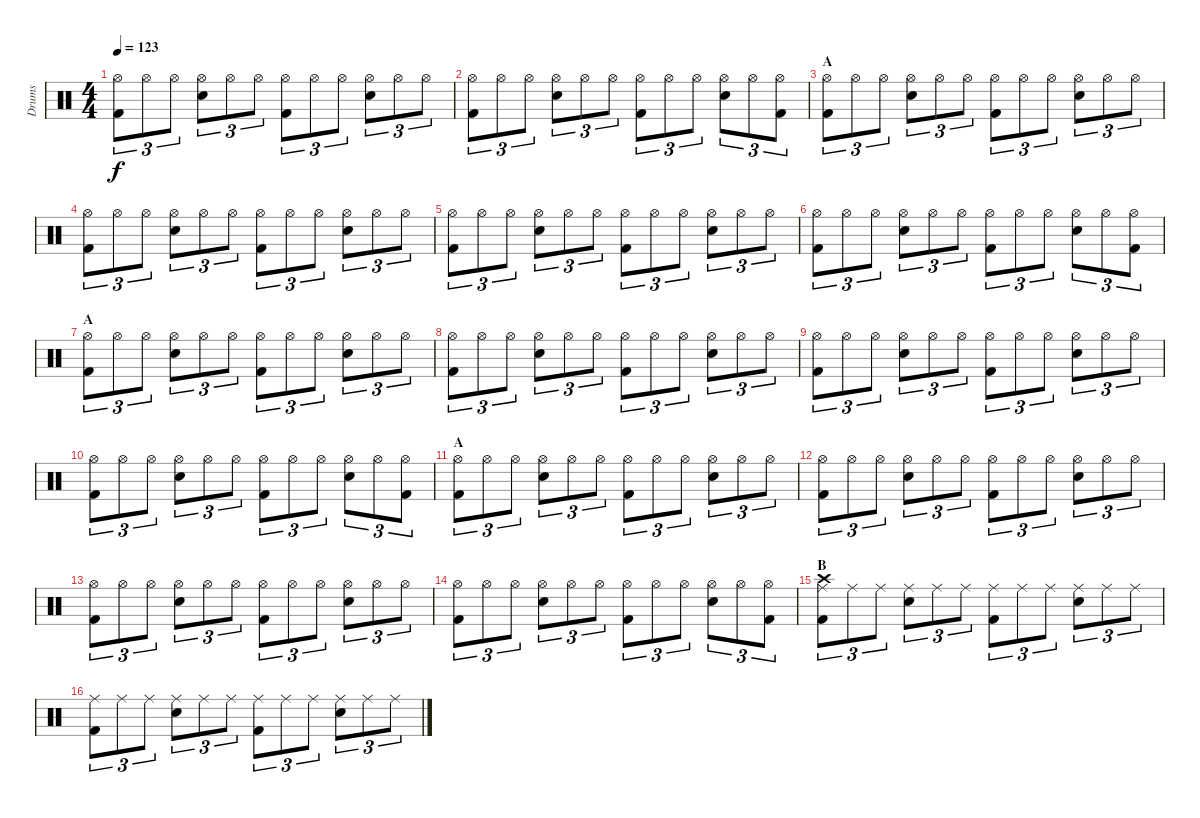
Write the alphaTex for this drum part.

\track ("Drums" "Drums") {instrument percussion}
\staff {score}
\articulation defaults
\ts (4 4)
\tempo 123
\clef neutral
\ks c
("Hi-Hat (open)" "Kick (hit) 2").8{tu (3 2) dy f} "Hi-Hat (open)".8{tu (3 2)} "Hi-Hat (open)".8{tu (3 2)} ("Hi-Hat (open)" "Snare (hit) 2").8{tu (3 2)} "Hi-Hat (open)".8{tu (3 2)} "Hi-Hat (open)".8{tu (3 2)} ("Hi-Hat (open)" "Kick (hit) 2").8{tu (3 2)} "Hi-Hat (open)".8{tu (3 2)} "Hi-Hat (open)".8{tu (3 2)} ("Hi-Hat (open)" "Snare (hit) 2").8{tu (3 2)} "Hi-Hat (open)".8{tu (3 2)} "Hi-Hat (open)".8{tu (3 2)} |
("Hi-Hat (open)" "Kick (hit) 2").8{tu (3 2)} "Hi-Hat (open)".8{tu (3 2)} "Hi-Hat (open)".8{tu (3 2)} ("Hi-Hat (open)" "Snare (hit) 2").8{tu (3 2)} "Hi-Hat (open)".8{tu (3 2)} "Hi-Hat (open)".8{tu (3 2)} ("Hi-Hat (open)" "Kick (hit) 2").8{tu (3 2)} "Hi-Hat (open)".8{tu (3 2)} "Hi-Hat (open)".8{tu (3 2)} ("Hi-Hat (open)" "Snare (hit) 2").8{tu (3 2)} "Hi-Hat (open)".8{tu (3 2)} ("Hi-Hat (open)" "Kick (hit) 2").8{tu (3 2)} |
\section ("" "A")
("Hi-Hat (open)" "Kick (hit) 2").8{tu (3 2)} "Hi-Hat (open)".8{tu (3 2)} "Hi-Hat (open)".8{tu (3 2)} ("Hi-Hat (open)" "Snare (hit) 2").8{tu (3 2)} "Hi-Hat (open)".8{tu (3 2)} "Hi-Hat (open)".8{tu (3 2)} ("Hi-Hat (open)" "Kick (hit) 2").8{tu (3 2)} "Hi-Hat (open)".8{tu (3 2)} "Hi-Hat (open)".8{tu (3 2)} ("Hi-Hat (open)" "Snare (hit) 2").8{tu (3 2)} "Hi-Hat (open)".8{tu (3 2)} "Hi-Hat (open)".8{tu (3 2)} |
("Hi-Hat (open)" "Kick (hit) 2").8{tu (3 2)} "Hi-Hat (open)".8{tu (3 2)} "Hi-Hat (open)".8{tu (3 2)} ("Hi-Hat (open)" "Snare (hit) 2").8{tu (3 2)} "Hi-Hat (open)".8{tu (3 2)} "Hi-Hat (open)".8{tu (3 2)} ("Hi-Hat (open)" "Kick (hit) 2").8{tu (3 2)} "Hi-Hat (open)".8{tu (3 2)} "Hi-Hat (open)".8{tu (3 2)} ("Hi-Hat (open)" "Snare (hit) 2").8{tu (3 2)} "Hi-Hat (open)".8{tu (3 2)} "Hi-Hat (open)".8{tu (3 2)} |
("Hi-Hat (open)" "Kick (hit) 2").8{tu (3 2)} "Hi-Hat (open)".8{tu (3 2)} "Hi-Hat (open)".8{tu (3 2)} ("Hi-Hat (open)" "Snare (hit) 2").8{tu (3 2)} "Hi-Hat (open)".8{tu (3 2)} "Hi-Hat (open)".8{tu (3 2)} ("Hi-Hat (open)" "Kick (hit) 2").8{tu (3 2)} "Hi-Hat (open)".8{tu (3 2)} "Hi-Hat (open)".8{tu (3 2)} ("Hi-Hat (open)" "Snare (hit) 2").8{tu (3 2)} "Hi-Hat (open)".8{tu (3 2)} "Hi-Hat (open)".8{tu (3 2)} |
("Hi-Hat (open)" "Kick (hit) 2").8{tu (3 2)} "Hi-Hat (open)".8{tu (3 2)} "Hi-Hat (open)".8{tu (3 2)} ("Hi-Hat (open)" "Snare (hit) 2").8{tu (3 2)} "Hi-Hat (open)".8{tu (3 2)} "Hi-Hat (open)".8{tu (3 2)} ("Hi-Hat (open)" "Kick (hit) 2").8{tu (3 2)} "Hi-Hat (open)".8{tu (3 2)} "Hi-Hat (open)".8{tu (3 2)} ("Hi-Hat (open)" "Snare (hit) 2").8{tu (3 2)} "Hi-Hat (open)".8{tu (3 2)} ("Hi-Hat (open)" "Kick (hit) 2").8{tu (3 2)} |
\section ("" "A")
("Hi-Hat (open)" "Kick (hit) 2").8{tu (3 2)} "Hi-Hat (open)".8{tu (3 2)} "Hi-Hat (open)".8{tu (3 2)} ("Hi-Hat (open)" "Snare (hit) 2").8{tu (3 2)} "Hi-Hat (open)".8{tu (3 2)} "Hi-Hat (open)".8{tu (3 2)} ("Hi-Hat (open)" "Kick (hit) 2").8{tu (3 2)} "Hi-Hat (open)".8{tu (3 2)} "Hi-Hat (open)".8{tu (3 2)} ("Hi-Hat (open)" "Snare (hit) 2").8{tu (3 2)} "Hi-Hat (open)".8{tu (3 2)} "Hi-Hat (open)".8{tu (3 2)} |
("Hi-Hat (open)" "Kick (hit) 2").8{tu (3 2)} "Hi-Hat (open)".8{tu (3 2)} "Hi-Hat (open)".8{tu (3 2)} ("Hi-Hat (open)" "Snare (hit) 2").8{tu (3 2)} "Hi-Hat (open)".8{tu (3 2)} "Hi-Hat (open)".8{tu (3 2)} ("Hi-Hat (open)" "Kick (hit) 2").8{tu (3 2)} "Hi-Hat (open)".8{tu (3 2)} "Hi-Hat (open)".8{tu (3 2)} ("Hi-Hat (open)" "Snare (hit) 2").8{tu (3 2)} "Hi-Hat (open)".8{tu (3 2)} "Hi-Hat (open)".8{tu (3 2)} |
("Hi-Hat (open)" "Kick (hit) 2").8{tu (3 2)} "Hi-Hat (open)".8{tu (3 2)} "Hi-Hat (open)".8{tu (3 2)} ("Hi-Hat (open)" "Snare (hit) 2").8{tu (3 2)} "Hi-Hat (open)".8{tu (3 2)} "Hi-Hat (open)".8{tu (3 2)} ("Hi-Hat (open)" "Kick (hit) 2").8{tu (3 2)} "Hi-Hat (open)".8{tu (3 2)} "Hi-Hat (open)".8{tu (3 2)} ("Hi-Hat (open)" "Snare (hit) 2").8{tu (3 2)} "Hi-Hat (open)".8{tu (3 2)} "Hi-Hat (open)".8{tu (3 2)} |
("Hi-Hat (open)" "Kick (hit) 2").8{tu (3 2)} "Hi-Hat (open)".8{tu (3 2)} "Hi-Hat (open)".8{tu (3 2)} ("Hi-Hat (open)" "Snare (hit) 2").8{tu (3 2)} "Hi-Hat (open)".8{tu (3 2)} "Hi-Hat (open)".8{tu (3 2)} ("Hi-Hat (open)" "Kick (hit) 2").8{tu (3 2)} "Hi-Hat (open)".8{tu (3 2)} "Hi-Hat (open)".8{tu (3 2)} ("Hi-Hat (open)" "Snare (hit) 2").8{tu (3 2)} "Hi-Hat (open)".8{tu (3 2)} ("Hi-Hat (open)" "Kick (hit) 2").8{tu (3 2)} |
\section ("" "A")
("Hi-Hat (open)" "Kick (hit) 2").8{tu (3 2)} "Hi-Hat (open)".8{tu (3 2)} "Hi-Hat (open)".8{tu (3 2)} ("Hi-Hat (open)" "Snare (hit) 2").8{tu (3 2)} "Hi-Hat (open)".8{tu (3 2)} "Hi-Hat (open)".8{tu (3 2)} ("Hi-Hat (open)" "Kick (hit) 2").8{tu (3 2)} "Hi-Hat (open)".8{tu (3 2)} "Hi-Hat (open)".8{tu (3 2)} ("Hi-Hat (open)" "Snare (hit) 2").8{tu (3 2)} "Hi-Hat (open)".8{tu (3 2)} "Hi-Hat (open)".8{tu (3 2)} |
("Hi-Hat (open)" "Kick (hit) 2").8{tu (3 2)} "Hi-Hat (open)".8{tu (3 2)} "Hi-Hat (open)".8{tu (3 2)} ("Hi-Hat (open)" "Snare (hit) 2").8{tu (3 2)} "Hi-Hat (open)".8{tu (3 2)} "Hi-Hat (open)".8{tu (3 2)} ("Hi-Hat (open)" "Kick (hit) 2").8{tu (3 2)} "Hi-Hat (open)".8{tu (3 2)} "Hi-Hat (open)".8{tu (3 2)} ("Hi-Hat (open)" "Snare (hit) 2").8{tu (3 2)} "Hi-Hat (open)".8{tu (3 2)} "Hi-Hat (open)".8{tu (3 2)} |
("Hi-Hat (open)" "Kick (hit) 2").8{tu (3 2)} "Hi-Hat (open)".8{tu (3 2)} "Hi-Hat (open)".8{tu (3 2)} ("Hi-Hat (open)" "Snare (hit) 2").8{tu (3 2)} "Hi-Hat (open)".8{tu (3 2)} "Hi-Hat (open)".8{tu (3 2)} ("Hi-Hat (open)" "Kick (hit) 2").8{tu (3 2)} "Hi-Hat (open)".8{tu (3 2)} "Hi-Hat (open)".8{tu (3 2)} ("Hi-Hat (open)" "Snare (hit) 2").8{tu (3 2)} "Hi-Hat (open)".8{tu (3 2)} "Hi-Hat (open)".8{tu (3 2)} |
("Hi-Hat (open)" "Kick (hit) 2").8{tu (3 2)} "Hi-Hat (open)".8{tu (3 2)} "Hi-Hat (open)".8{tu (3 2)} ("Hi-Hat (open)" "Snare (hit) 2").8{tu (3 2)} "Hi-Hat (open)".8{tu (3 2)} "Hi-Hat (open)".8{tu (3 2)} ("Hi-Hat (open)" "Kick (hit) 2").8{tu (3 2)} "Hi-Hat (open)".8{tu (3 2)} "Hi-Hat (open)".8{tu (3 2)} ("Hi-Hat (open)" "Snare (hit) 2").8{tu (3 2)} "Hi-Hat (open)".8{tu (3 2)} ("Hi-Hat (open)" "Kick (hit) 2").8{tu (3 2)} |
\section ("" "B")
("Crash high (hit)" "Ride (middle)" "Kick (hit) 2").8{tu (3 2)} "Ride (middle)".8{tu (3 2)} "Ride (middle)".8{tu (3 2)} ("Ride (middle)" "Snare (hit) 2").8{tu (3 2)} "Ride (middle)".8{tu (3 2)} "Ride (middle)".8{tu (3 2)} ("Ride (middle)" "Kick (hit) 2").8{tu (3 2)} "Ride (middle)".8{tu (3 2)} "Ride (middle)".8{tu (3 2)} ("Ride (middle)" "Snare (hit) 2").8{tu (3 2)} "Ride (middle)".8{tu (3 2)} "Ride (middle)".8{tu (3 2)} |
("Ride (middle)" "Kick (hit) 2").8{tu (3 2)} "Ride (middle)".8{tu (3 2)} "Ride (middle)".8{tu (3 2)} ("Ride (middle)" "Snare (hit) 2").8{tu (3 2)} "Ride (middle)".8{tu (3 2)} "Ride (middle)".8{tu (3 2)} ("Ride (middle)" "Kick (hit) 2").8{tu (3 2)} "Ride (middle)".8{tu (3 2)} "Ride (middle)".8{tu (3 2)} ("Ride (middle)" "Snare (hit) 2").8{tu (3 2)} "Ride (middle)".8{tu (3 2)} "Ride (middle)".8{tu (3 2)}
